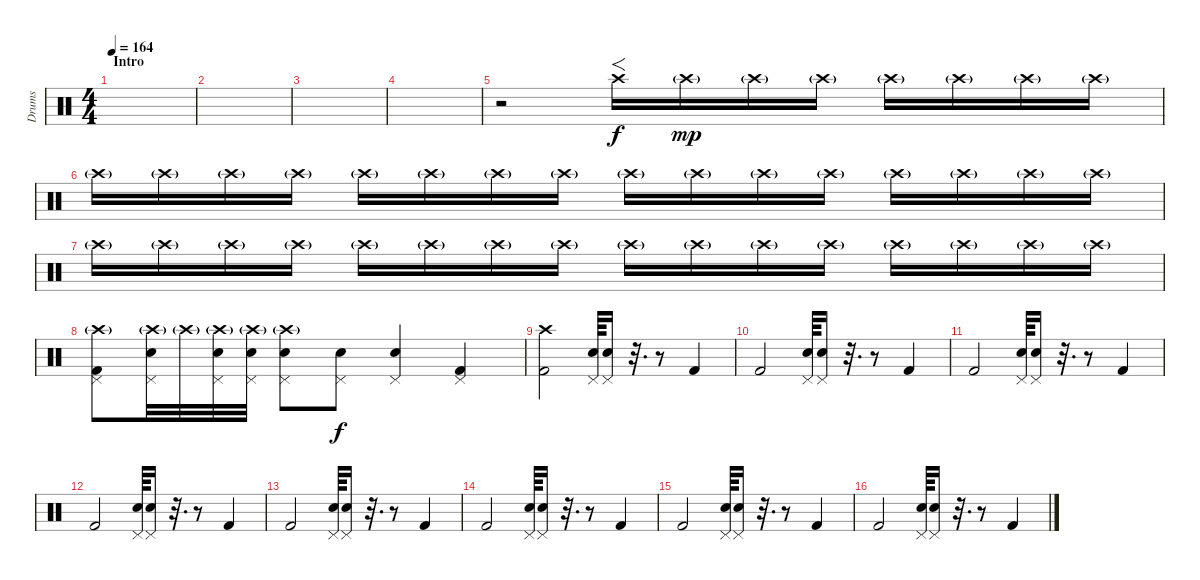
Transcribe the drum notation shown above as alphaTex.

\track ("Drums" "Drums") {instrument percussion}
\staff {score}
\articulation defaults
\ts (4 4)
\section ("" "Intro")
\tempo 164
\clef neutral
\ks c
|
|
|
|
r.2 "Crash high (hit)".16{f volume 2} "Crash high (hit)"{g}.16{dy mp volume 9} "Crash high (hit)"{g}.16 "Crash high (hit)"{g}.16 "Crash high (hit)"{g}.16 "Crash high (hit)"{g}.16 "Crash high (hit)"{g}.16 "Crash high (hit)"{g}.16 |
"Crash high (hit)"{g}.16 "Crash high (hit)"{g}.16 "Crash high (hit)"{g}.16 "Crash high (hit)"{g}.16 "Crash high (hit)"{g}.16 "Crash high (hit)"{g}.16 "Crash high (hit)"{g}.16 "Crash high (hit)"{g}.16 "Crash high (hit)"{g}.16 "Crash high (hit)"{g}.16 "Crash high (hit)"{g}.16 "Crash high (hit)"{g}.16 "Crash high (hit)"{g}.16 "Crash high (hit)"{g}.16 "Crash high (hit)"{g}.16 "Crash high (hit)"{g}.16 |
"Crash high (hit)"{g}.16 "Crash high (hit)"{g}.16 "Crash high (hit)"{g}.16 "Crash high (hit)"{g}.16 "Crash high (hit)"{g}.16 "Crash high (hit)"{g}.16 "Crash high (hit)"{g}.16 "Crash high (hit)"{g}.16 "Crash high (hit)"{g}.16 "Crash high (hit)"{g}.16{volume 14} "Crash high (hit)"{g}.16 "Crash high (hit)"{g}.16 "Crash high (hit)"{g}.16 "Crash high (hit)"{g}.16 "Crash high (hit)"{g}.16 "Crash high (hit)"{g}.16 |
("Crash high (hit)"{g} "Pedal Hi-Hat (hit)" "Kick (hit) 2").8 ("Crash high (hit)"{g} "Pedal Hi-Hat (hit)" "Electric Snare (hit)").32 "Crash high (hit)"{g}.32 ("Crash high (hit)"{g} "Pedal Hi-Hat (hit)" "Electric Snare (hit)").32 ("Crash high (hit)"{g} "Pedal Hi-Hat (hit)" "Electric Snare (hit)").32 ("Crash high (hit)"{g} "Pedal Hi-Hat (hit)" "Electric Snare (hit)").8 ("Pedal Hi-Hat (hit)" "Electric Snare (hit)").8{dy f} ("Pedal Hi-Hat (hit)" "Electric Snare (hit)").4 ("Pedal Hi-Hat (hit)" "Kick (hit) 2").4 |
("Crash high (hit)" "Kick (hit) 2").2 ("Pedal Hi-Hat (hit)" "Electric Snare (hit)").64 ("Pedal Hi-Hat (hit)" "Electric Snare (hit)").16 r.32{d} r.8 "Kick (hit) 2".4 |
"Kick (hit) 2".2 ("Pedal Hi-Hat (hit)" "Electric Snare (hit)").64 ("Pedal Hi-Hat (hit)" "Electric Snare (hit)").16 r.32{d} r.8 "Kick (hit) 2".4 |
"Kick (hit) 2".2 ("Pedal Hi-Hat (hit)" "Electric Snare (hit)").64 ("Pedal Hi-Hat (hit)" "Electric Snare (hit)").16 r.32{d} r.8 "Kick (hit) 2".4 |
"Kick (hit) 2".2 ("Pedal Hi-Hat (hit)" "Electric Snare (hit)").64 ("Pedal Hi-Hat (hit)" "Electric Snare (hit)").16 r.32{d} r.8 "Kick (hit) 2".4 |
"Kick (hit) 2".2 ("Pedal Hi-Hat (hit)" "Electric Snare (hit)").64 ("Pedal Hi-Hat (hit)" "Electric Snare (hit)").16 r.32{d} r.8 "Kick (hit) 2".4 |
"Kick (hit) 2".2 ("Pedal Hi-Hat (hit)" "Electric Snare (hit)").64 ("Pedal Hi-Hat (hit)" "Electric Snare (hit)").16 r.32{d} r.8 "Kick (hit) 2".4 |
"Kick (hit) 2".2 ("Pedal Hi-Hat (hit)" "Electric Snare (hit)").64 ("Pedal Hi-Hat (hit)" "Electric Snare (hit)").16 r.32{d} r.8 "Kick (hit) 2".4 |
"Kick (hit) 2".2 ("Pedal Hi-Hat (hit)" "Electric Snare (hit)").64 ("Pedal Hi-Hat (hit)" "Electric Snare (hit)").16 r.32{d} r.8 "Kick (hit) 2".4
